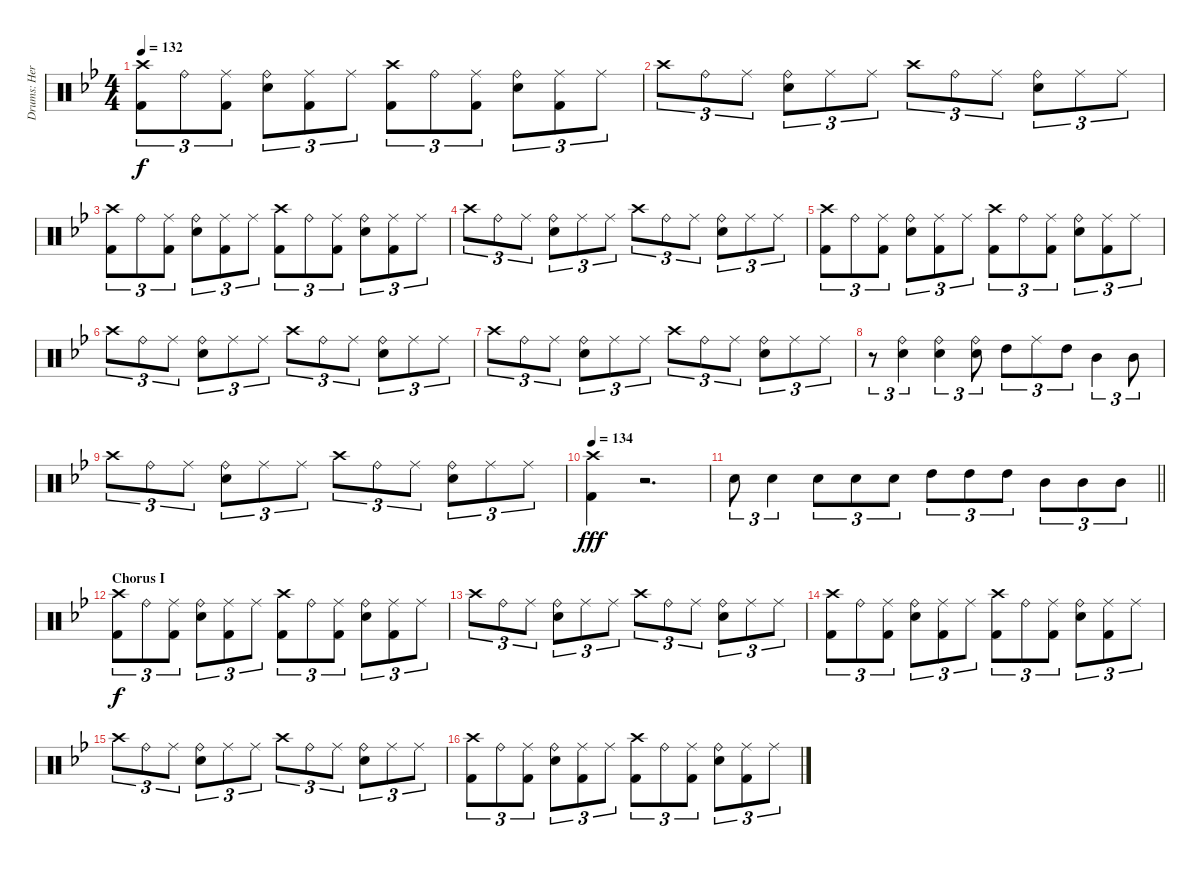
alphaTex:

\track ("Drums: Herman" "Drums: Her") {instrument percussion}
\staff {score}
\articulation defaults
\ts (4 4)
\tempo 132
\clef neutral
\ks bb
("Crash high (hit)" "Kick (hit) 2").8{tu (3 2) dy f} "Ride (bell)".8{tu (3 2)} ("Ride (middle)" "Kick (hit) 2").8{tu (3 2)} ("Ride (bell)" "Snare (hit) 2").8{tu (3 2)} ("Ride (middle)" "Kick (hit) 2").8{tu (3 2)} "Ride (middle)".8{tu (3 2)} ("Crash high (hit)" "Kick (hit) 2").8{tu (3 2)} "Ride (bell)".8{tu (3 2)} ("Ride (middle)" "Kick (hit) 2").8{tu (3 2)} ("Ride (bell)" "Snare (hit) 2").8{tu (3 2)} ("Ride (middle)" "Kick (hit) 2").8{tu (3 2)} "Ride (middle)".8{tu (3 2)} |
"Crash high (hit)".8{tu (3 2)} "Ride (bell)".8{tu (3 2)} "Ride (middle)".8{tu (3 2)} ("Ride (bell)" "Snare (hit) 2").8{tu (3 2)} "Ride (middle)".8{tu (3 2)} "Ride (middle)".8{tu (3 2)} "Crash high (hit)".8{tu (3 2)} "Ride (bell)".8{tu (3 2)} "Ride (middle)".8{tu (3 2)} ("Ride (bell)" "Snare (hit) 2").8{tu (3 2)} "Ride (middle)".8{tu (3 2)} "Ride (middle)".8{tu (3 2)} |
("Crash high (hit)" "Kick (hit) 2").8{tu (3 2)} "Ride (bell)".8{tu (3 2)} ("Ride (middle)" "Kick (hit) 2").8{tu (3 2)} ("Ride (bell)" "Snare (hit) 2").8{tu (3 2)} ("Ride (middle)" "Kick (hit) 2").8{tu (3 2)} "Ride (middle)".8{tu (3 2)} ("Crash high (hit)" "Kick (hit) 2").8{tu (3 2)} "Ride (bell)".8{tu (3 2)} ("Ride (middle)" "Kick (hit) 2").8{tu (3 2)} ("Ride (bell)" "Snare (hit) 2").8{tu (3 2)} ("Ride (middle)" "Kick (hit) 2").8{tu (3 2)} "Ride (middle)".8{tu (3 2)} |
"Crash high (hit)".8{tu (3 2)} "Ride (bell)".8{tu (3 2)} "Ride (middle)".8{tu (3 2)} ("Ride (bell)" "Snare (hit) 2").8{tu (3 2)} "Ride (middle)".8{tu (3 2)} "Ride (middle)".8{tu (3 2)} "Crash high (hit)".8{tu (3 2)} "Ride (bell)".8{tu (3 2)} "Ride (middle)".8{tu (3 2)} ("Ride (bell)" "Snare (hit) 2").8{tu (3 2)} "Ride (middle)".8{tu (3 2)} "Ride (middle)".8{tu (3 2)} |
("Crash high (hit)" "Kick (hit) 2").8{tu (3 2)} "Ride (bell)".8{tu (3 2)} ("Ride (middle)" "Kick (hit) 2").8{tu (3 2)} ("Ride (bell)" "Snare (hit) 2").8{tu (3 2)} ("Ride (middle)" "Kick (hit) 2").8{tu (3 2)} "Ride (middle)".8{tu (3 2)} ("Crash high (hit)" "Kick (hit) 2").8{tu (3 2)} "Ride (bell)".8{tu (3 2)} ("Ride (middle)" "Kick (hit) 2").8{tu (3 2)} ("Ride (bell)" "Snare (hit) 2").8{tu (3 2)} ("Ride (middle)" "Kick (hit) 2").8{tu (3 2)} "Ride (middle)".8{tu (3 2)} |
"Crash high (hit)".8{tu (3 2)} "Ride (bell)".8{tu (3 2)} "Ride (middle)".8{tu (3 2)} ("Ride (bell)" "Snare (hit) 2").8{tu (3 2)} "Ride (middle)".8{tu (3 2)} "Ride (middle)".8{tu (3 2)} "Crash high (hit)".8{tu (3 2)} "Ride (bell)".8{tu (3 2)} "Ride (middle)".8{tu (3 2)} ("Ride (bell)" "Snare (hit) 2").8{tu (3 2)} "Ride (middle)".8{tu (3 2)} "Ride (middle)".8{tu (3 2)} |
"Crash high (hit)".8{tu (3 2)} "Ride (bell)".8{tu (3 2)} "Ride (middle)".8{tu (3 2)} ("Ride (bell)" "Snare (hit) 2").8{tu (3 2)} "Ride (middle)".8{tu (3 2)} "Ride (middle)".8{tu (3 2)} "Crash high (hit)".8{tu (3 2)} "Ride (bell)".8{tu (3 2)} "Ride (middle)".8{tu (3 2)} ("Ride (bell)" "Snare (hit) 2").8{tu (3 2)} "Ride (middle)".8{tu (3 2)} "Ride (middle)".8{tu (3 2)} |
r.8{tu (3 2)} ("Ride (bell)" "Snare (hit) 2").4{tu (3 2)} ("Ride (bell)" "Snare (hit) 2").4{tu (3 2)} ("Ride (bell)" "Snare (hit) 2").8{tu (3 2)} "High Tom (hit)".8{tu (3 2)} "Ride (middle)".8{tu (3 2)} "High Tom (hit)".8{tu (3 2)} "Mid Tom (hit)".4{tu (3 2)} "Mid Tom (hit)".8{tu (3 2)} |
"Crash high (hit)".8{tu (3 2)} "Ride (bell)".8{tu (3 2)} "Ride (middle)".8{tu (3 2)} ("Ride (bell)" "Snare (hit) 2").8{tu (3 2)} "Ride (middle)".8{tu (3 2)} "Ride (middle)".8{tu (3 2)} "Crash high (hit)".8{tu (3 2)} "Ride (bell)".8{tu (3 2)} "Ride (middle)".8{tu (3 2)} ("Ride (bell)" "Snare (hit) 2").8{tu (3 2)} "Ride (middle)".8{tu (3 2)} "Ride (middle)".8{tu (3 2)} |
\tempo 134
("Crash high (hit)" "Kick (hit) 2").4{dy fff} r.2{d} |
\barLineRight lightlight "Snare (hit) 2".8{tu (3 2)} "Snare (hit) 2".4{tu (3 2)} "Snare (hit) 2".8{tu (3 2)} "Snare (hit) 2".8{tu (3 2)} "Snare (hit) 2".8{tu (3 2)} "High Tom (hit)".8{tu (3 2)} "High Tom (hit)".8{tu (3 2)} "High Tom (hit)".8{tu (3 2)} "Mid Tom (hit)".8{tu (3 2)} "Mid Tom (hit)".8{tu (3 2)} "Mid Tom (hit)".8{tu (3 2)}
|
\section ("" "Chorus I")
("Crash high (hit)" "Kick (hit) 2").8{tu (3 2) dy f} "Ride (bell)".8{tu (3 2)} ("Ride (middle)" "Kick (hit) 2").8{tu (3 2)} ("Ride (bell)" "Snare (hit) 2").8{tu (3 2)} ("Ride (middle)" "Kick (hit) 2").8{tu (3 2)} "Ride (middle)".8{tu (3 2)} ("Crash high (hit)" "Kick (hit) 2").8{tu (3 2)} "Ride (bell)".8{tu (3 2)} ("Ride (middle)" "Kick (hit) 2").8{tu (3 2)} ("Ride (bell)" "Snare (hit) 2").8{tu (3 2)} ("Ride (middle)" "Kick (hit) 2").8{tu (3 2)} "Ride (middle)".8{tu (3 2)} |
"Crash high (hit)".8{tu (3 2)} "Ride (bell)".8{tu (3 2)} "Ride (middle)".8{tu (3 2)} ("Ride (bell)" "Snare (hit) 2").8{tu (3 2)} "Ride (middle)".8{tu (3 2)} "Ride (middle)".8{tu (3 2)} "Crash high (hit)".8{tu (3 2)} "Ride (bell)".8{tu (3 2)} "Ride (middle)".8{tu (3 2)} ("Ride (bell)" "Snare (hit) 2").8{tu (3 2)} "Ride (middle)".8{tu (3 2)} "Ride (middle)".8{tu (3 2)} |
("Crash high (hit)" "Kick (hit) 2").8{tu (3 2)} "Ride (bell)".8{tu (3 2)} ("Ride (middle)" "Kick (hit) 2").8{tu (3 2)} ("Ride (bell)" "Snare (hit) 2").8{tu (3 2)} ("Ride (middle)" "Kick (hit) 2").8{tu (3 2)} "Ride (middle)".8{tu (3 2)} ("Crash high (hit)" "Kick (hit) 2").8{tu (3 2)} "Ride (bell)".8{tu (3 2)} ("Ride (middle)" "Kick (hit) 2").8{tu (3 2)} ("Ride (bell)" "Snare (hit) 2").8{tu (3 2)} ("Ride (middle)" "Kick (hit) 2").8{tu (3 2)} "Ride (middle)".8{tu (3 2)} |
"Crash high (hit)".8{tu (3 2)} "Ride (bell)".8{tu (3 2)} "Ride (middle)".8{tu (3 2)} ("Ride (bell)" "Snare (hit) 2").8{tu (3 2)} "Ride (middle)".8{tu (3 2)} "Ride (middle)".8{tu (3 2)} "Crash high (hit)".8{tu (3 2)} "Ride (bell)".8{tu (3 2)} "Ride (middle)".8{tu (3 2)} ("Ride (bell)" "Snare (hit) 2").8{tu (3 2)} "Ride (middle)".8{tu (3 2)} "Ride (middle)".8{tu (3 2)} |
("Crash high (hit)" "Kick (hit) 2").8{tu (3 2)} "Ride (bell)".8{tu (3 2)} ("Ride (middle)" "Kick (hit) 2").8{tu (3 2)} ("Ride (bell)" "Snare (hit) 2").8{tu (3 2)} ("Ride (middle)" "Kick (hit) 2").8{tu (3 2)} "Ride (middle)".8{tu (3 2)} ("Crash high (hit)" "Kick (hit) 2").8{tu (3 2)} "Ride (bell)".8{tu (3 2)} ("Ride (middle)" "Kick (hit) 2").8{tu (3 2)} ("Ride (bell)" "Snare (hit) 2").8{tu (3 2)} ("Ride (middle)" "Kick (hit) 2").8{tu (3 2)} "Ride (middle)".8{tu (3 2)}
